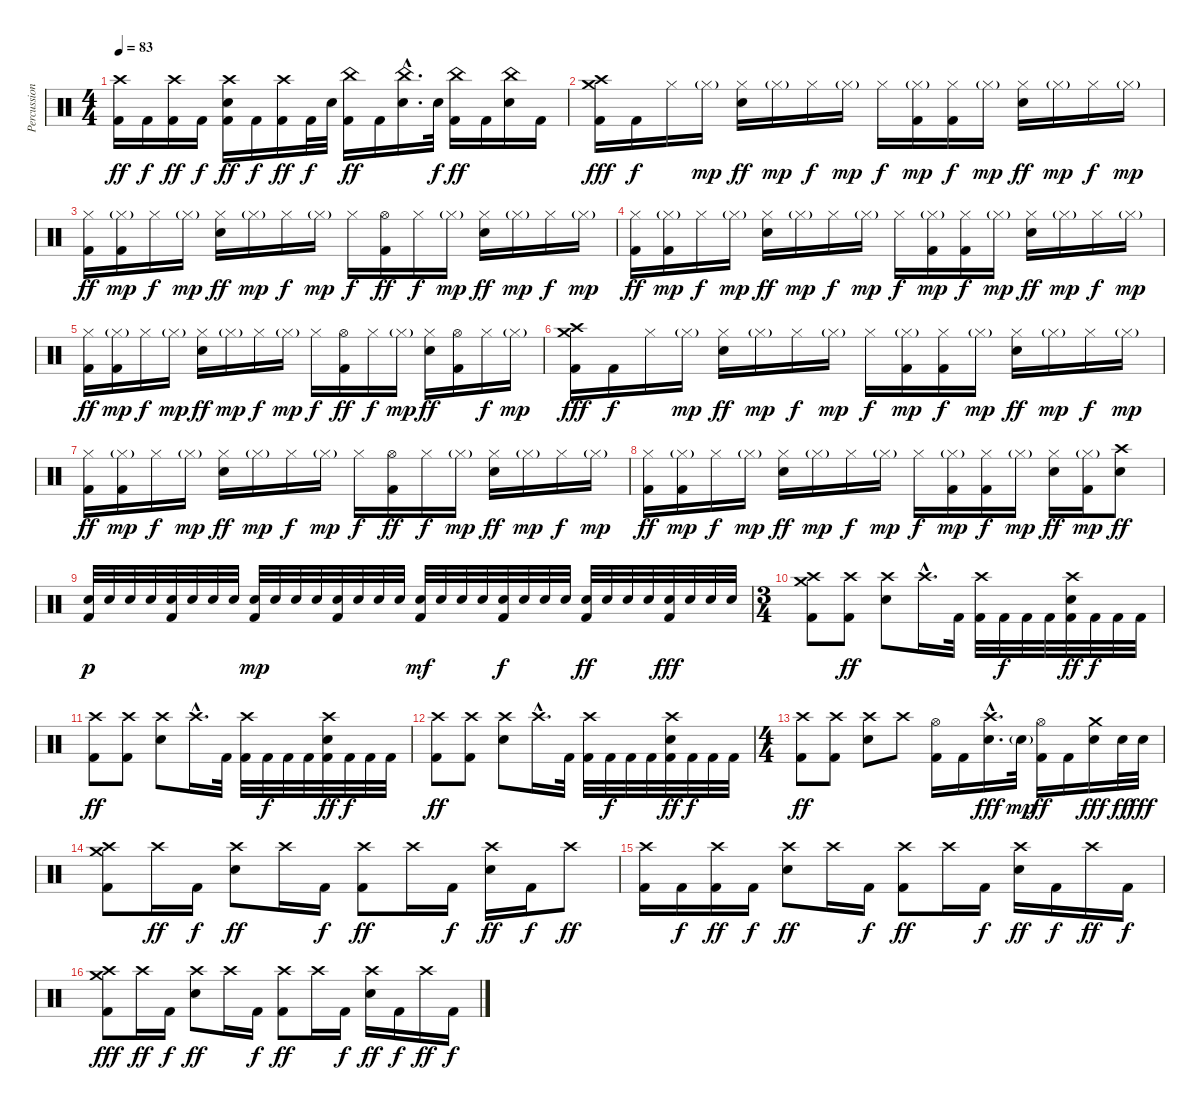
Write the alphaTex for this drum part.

\track ("Percussions" "Percussion") {instrument percussion}
\staff {score}
\articulation defaults
\ts (4 4)
\tempo 83
\clef neutral
\ks c
("Crash high (hit)" "Kick (hit) 2").16{dy ff} "Kick (hit) 2".16{dy f} ("Crash high (hit)" "Kick (hit) 2").16{dy ff} "Kick (hit) 2".16{dy f} ("Crash high (hit)" "Electric Snare (hit)" "Kick (hit) 2").16{dy ff} "Kick (hit) 2".16{dy f} ("Crash high (hit)" "Kick (hit) 2").16{dy ff} "Kick (hit) 2".32{dy f} "Electric Snare (hit)".32 ("China (hit)" "Kick (hit) 2").16{dy ff} "Kick (hit) 2".16 ("China (hit)"{hac} "Electric Snare (hit)"{hac}).16{d} "Electric Snare (hit)".32{dy f} ("China (hit)" "Kick (hit) 2").16{dy ff} "Kick (hit) 2".16 ("China (hit)" "Electric Snare (hit)").16 "Kick (hit) 2".16 |
("Crash high (hit)" "Crash medium (hit)" "Kick (hit) 2").16{dy fff} "Kick (hit) 2".16{dy f} "Hi-Hat (closed)".16 "Hi-Hat (closed)"{g}.16{dy mp} ("Hi-Hat (closed)" "Electric Snare (hit)").16{dy ff} "Hi-Hat (closed)"{g}.16{dy mp} "Hi-Hat (closed)".16{dy f} "Hi-Hat (closed)"{g}.16{dy mp} "Hi-Hat (closed)".16{dy f} ("Hi-Hat (closed)"{g} "Kick (hit) 2").16{dy mp} ("Hi-Hat (closed)" "Kick (hit) 2").16{dy f} "Hi-Hat (closed)"{g}.16{dy mp} ("Hi-Hat (closed)" "Electric Snare (hit)").16{dy ff} "Hi-Hat (closed)"{g}.16{dy mp} "Hi-Hat (closed)".16{dy f} "Hi-Hat (closed)"{g}.16{dy mp} |
("Hi-Hat (closed)" "Kick (hit) 2").16{dy ff} ("Hi-Hat (closed)"{g} "Kick (hit) 2").16{dy mp} "Hi-Hat (closed)".16{dy f} "Hi-Hat (closed)"{g}.16{dy mp} ("Hi-Hat (closed)" "Electric Snare (hit)").16{dy ff} "Hi-Hat (closed)"{g}.16{dy mp} "Hi-Hat (closed)".16{dy f} "Hi-Hat (closed)"{g}.16{dy mp} "Hi-Hat (closed)".16{dy f} ("Hi-Hat (open)" "Kick (hit) 2").16{dy ff} "Hi-Hat (closed)".16{dy f} "Hi-Hat (closed)"{g}.16{dy mp} ("Hi-Hat (closed)" "Electric Snare (hit)").16{dy ff} "Hi-Hat (closed)"{g}.16{dy mp} "Hi-Hat (closed)".16{dy f} "Hi-Hat (closed)"{g}.16{dy mp} |
("Hi-Hat (closed)" "Kick (hit) 2").16{dy ff} ("Hi-Hat (closed)"{g} "Kick (hit) 2").16{dy mp} "Hi-Hat (closed)".16{dy f} "Hi-Hat (closed)"{g}.16{dy mp} ("Hi-Hat (closed)" "Electric Snare (hit)").16{dy ff} "Hi-Hat (closed)"{g}.16{dy mp} "Hi-Hat (closed)".16{dy f} "Hi-Hat (closed)"{g}.16{dy mp} "Hi-Hat (closed)".16{dy f} ("Hi-Hat (closed)"{g} "Kick (hit) 2").16{dy mp} ("Hi-Hat (closed)" "Kick (hit) 2").16{dy f} "Hi-Hat (closed)"{g}.16{dy mp} ("Hi-Hat (closed)" "Electric Snare (hit)").16{dy ff} "Hi-Hat (closed)"{g}.16{dy mp} "Hi-Hat (closed)".16{dy f} "Hi-Hat (closed)"{g}.16{dy mp} |
("Hi-Hat (closed)" "Kick (hit) 2").16{dy ff} ("Hi-Hat (closed)"{g} "Kick (hit) 2").16{dy mp} "Hi-Hat (closed)".16{dy f} "Hi-Hat (closed)"{g}.16{dy mp} ("Hi-Hat (closed)" "Electric Snare (hit)").16{dy ff} "Hi-Hat (closed)"{g}.16{dy mp} "Hi-Hat (closed)".16{dy f} "Hi-Hat (closed)"{g}.16{dy mp} "Hi-Hat (closed)".16{dy f} ("Hi-Hat (open)" "Kick (hit) 2").16{dy ff} "Hi-Hat (closed)".16{dy f} "Hi-Hat (closed)"{g}.16{dy mp} ("Hi-Hat (closed)" "Electric Snare (hit)").16{dy ff} ("Hi-Hat (open)" "Kick (hit) 2").16 "Hi-Hat (closed)".16{dy f} "Hi-Hat (closed)"{g}.16{dy mp} |
("Crash high (hit)" "Crash medium (hit)" "Kick (hit) 2").16{dy fff} "Kick (hit) 2".16{dy f} "Hi-Hat (closed)".16 "Hi-Hat (closed)"{g}.16{dy mp} ("Hi-Hat (closed)" "Electric Snare (hit)").16{dy ff} "Hi-Hat (closed)"{g}.16{dy mp} "Hi-Hat (closed)".16{dy f} "Hi-Hat (closed)"{g}.16{dy mp} "Hi-Hat (closed)".16{dy f} ("Hi-Hat (closed)"{g} "Kick (hit) 2").16{dy mp} ("Hi-Hat (closed)" "Kick (hit) 2").16{dy f} "Hi-Hat (closed)"{g}.16{dy mp} ("Hi-Hat (closed)" "Electric Snare (hit)").16{dy ff} "Hi-Hat (closed)"{g}.16{dy mp} "Hi-Hat (closed)".16{dy f} "Hi-Hat (closed)"{g}.16{dy mp} |
("Hi-Hat (closed)" "Kick (hit) 2").16{dy ff} ("Hi-Hat (closed)"{g} "Kick (hit) 2").16{dy mp} "Hi-Hat (closed)".16{dy f} "Hi-Hat (closed)"{g}.16{dy mp} ("Hi-Hat (closed)" "Electric Snare (hit)").16{dy ff} "Hi-Hat (closed)"{g}.16{dy mp} "Hi-Hat (closed)".16{dy f} "Hi-Hat (closed)"{g}.16{dy mp} "Hi-Hat (closed)".16{dy f} ("Hi-Hat (open)" "Kick (hit) 2").16{dy ff} "Hi-Hat (closed)".16{dy f} "Hi-Hat (closed)"{g}.16{dy mp} ("Hi-Hat (closed)" "Electric Snare (hit)").16{dy ff} "Hi-Hat (closed)"{g}.16{dy mp} "Hi-Hat (closed)".16{dy f} "Hi-Hat (closed)"{g}.16{dy mp} |
("Hi-Hat (closed)" "Kick (hit) 2").16{dy ff} ("Hi-Hat (closed)"{g} "Kick (hit) 2").16{dy mp} "Hi-Hat (closed)".16{dy f} "Hi-Hat (closed)"{g}.16{dy mp} ("Hi-Hat (closed)" "Electric Snare (hit)").16{dy ff} "Hi-Hat (closed)"{g}.16{dy mp} "Hi-Hat (closed)".16{dy f} "Hi-Hat (closed)"{g}.16{dy mp} "Hi-Hat (closed)".16{dy f} ("Hi-Hat (closed)"{g} "Kick (hit) 2").16{dy mp} ("Hi-Hat (closed)" "Kick (hit) 2").16{dy f} "Hi-Hat (closed)"{g}.16{dy mp} ("Hi-Hat (closed)" "Electric Snare (hit)").16{dy ff} ("Hi-Hat (closed)"{g} "Kick (hit) 2").16{dy mp} ("Crash high (hit)" "Electric Snare (hit)").8{dy ff} |
("Electric Snare (hit)" "Kick (hit) 2").32{dy p} "Electric Snare (hit)".32 "Electric Snare (hit)".32 "Electric Snare (hit)".32 ("Electric Snare (hit)" "Kick (hit) 2").32 "Electric Snare (hit)".32 "Electric Snare (hit)".32 "Electric Snare (hit)".32 ("Electric Snare (hit)" "Kick (hit) 2").32{dy mp} "Electric Snare (hit)".32 "Electric Snare (hit)".32 "Electric Snare (hit)".32 ("Electric Snare (hit)" "Kick (hit) 2").32 "Electric Snare (hit)".32 "Electric Snare (hit)".32 "Electric Snare (hit)".32 ("Electric Snare (hit)" "Kick (hit) 2").32{dy mf} "Electric Snare (hit)".32 "Electric Snare (hit)".32 "Electric Snare (hit)".32 ("Electric Snare (hit)" "Kick (hit) 2").32{dy f} "Electric Snare (hit)".32 "Electric Snare (hit)".32 "Electric Snare (hit)".32 ("Electric Snare (hit)" "Kick (hit) 2").32{dy ff} "Electric Snare (hit)".32 "Electric Snare (hit)".32 "Electric Snare (hit)".32 ("Electric Snare (hit)" "Kick (hit) 2").32{dy fff} "Electric Snare (hit)".32 "Electric Snare (hit)".32 "Electric Snare (hit)".32 |
\ts (3 4)
("Crash high (hit)" "Crash medium (hit)" "Kick (hit) 2").8 ("Crash high (hit)" "Kick (hit) 2").8{dy ff} ("Crash high (hit)" "Electric Snare (hit)").8 "Crash high (hit)"{hac}.16{d} "Kick (hit) 2".32 ("Crash high (hit)" "Kick (hit) 2").32 "Kick (hit) 2".32{dy f} "Kick (hit) 2".32 "Kick (hit) 2".32 ("Crash high (hit)" "Electric Snare (hit)" "Kick (hit) 2").32{dy ff} "Kick (hit) 2".32{dy f} "Kick (hit) 2".32 "Kick (hit) 2".32 |
("Crash high (hit)" "Kick (hit) 2").8{dy ff} ("Crash high (hit)" "Kick (hit) 2").8 ("Crash high (hit)" "Electric Snare (hit)").8 "Crash high (hit)"{hac}.16{d} "Kick (hit) 2".32 ("Crash high (hit)" "Kick (hit) 2").32 "Kick (hit) 2".32{dy f} "Kick (hit) 2".32 "Kick (hit) 2".32 ("Crash high (hit)" "Electric Snare (hit)" "Kick (hit) 2").32{dy ff} "Kick (hit) 2".32{dy f} "Kick (hit) 2".32 "Kick (hit) 2".32 |
("Crash high (hit)" "Kick (hit) 2").8{dy ff} ("Crash high (hit)" "Kick (hit) 2").8 ("Crash high (hit)" "Electric Snare (hit)").8 "Crash high (hit)"{hac}.16{d} "Kick (hit) 2".32 ("Crash high (hit)" "Kick (hit) 2").32 "Kick (hit) 2".32{dy f} "Kick (hit) 2".32 "Kick (hit) 2".32 ("Crash high (hit)" "Electric Snare (hit)" "Kick (hit) 2").32{dy ff} "Kick (hit) 2".32{dy f} "Kick (hit) 2".32 "Kick (hit) 2".32 |
\ts (4 4)
("Crash high (hit)" "Kick (hit) 2").8{dy ff} ("Crash high (hit)" "Kick (hit) 2").8 ("Crash high (hit)" "Electric Snare (hit)").8 "Crash high (hit)".8 ("Hi-Hat (open)" "Kick (hit) 2").16 "Kick (hit) 2".16 ("Crash high (hit)"{hac} "Electric Snare (hit)"{hac}).16{d dy fff} "Electric Snare (hit)"{g}.32{dy mp} ("Hi-Hat (open)" "Kick (hit) 2").16{dy ff} "Kick (hit) 2".16 ("Crash medium (hit)" "Electric Snare (hit)").16{dy fff} "Electric Snare (hit)".32{dy ff} "Electric Snare (hit)".32{dy fff} |
("Crash medium (hit)" "Crash high (hit)" "Kick (hit) 2").8 "Crash high (hit)".16{dy ff} "Kick (hit) 2".16{dy f} ("Crash high (hit)" "Electric Snare (hit)").8{dy ff} "Crash high (hit)".16 "Kick (hit) 2".16{dy f} ("Crash high (hit)" "Kick (hit) 2").8{dy ff} "Crash high (hit)".16 "Kick (hit) 2".16{dy f} ("Crash high (hit)" "Electric Snare (hit)").16{dy ff} "Kick (hit) 2".16{dy f} "Crash high (hit)".8{dy ff} |
("Crash high (hit)" "Kick (hit) 2").16 "Kick (hit) 2".16{dy f} ("Crash high (hit)" "Kick (hit) 2").16{dy ff} "Kick (hit) 2".16{dy f} ("Crash high (hit)" "Electric Snare (hit)").8{dy ff} "Crash high (hit)".16 "Kick (hit) 2".16{dy f} ("Crash high (hit)" "Kick (hit) 2").8{dy ff} "Crash high (hit)".16 "Kick (hit) 2".16{dy f} ("Crash high (hit)" "Electric Snare (hit)").16{dy ff} "Kick (hit) 2".16{dy f} "Crash high (hit)".16{dy ff} "Kick (hit) 2".16{dy f} |
("Crash medium (hit)" "Crash high (hit)" "Kick (hit) 2").8{dy fff} "Crash high (hit)".16{dy ff} "Kick (hit) 2".16{dy f} ("Crash high (hit)" "Electric Snare (hit)").8{dy ff} "Crash high (hit)".16 "Kick (hit) 2".16{dy f} ("Crash high (hit)" "Kick (hit) 2").8{dy ff} "Crash high (hit)".16 "Kick (hit) 2".16{dy f} ("Crash high (hit)" "Electric Snare (hit)").16{dy ff} "Kick (hit) 2".16{dy f} "Crash high (hit)".16{dy ff} "Kick (hit) 2".16{dy f}
